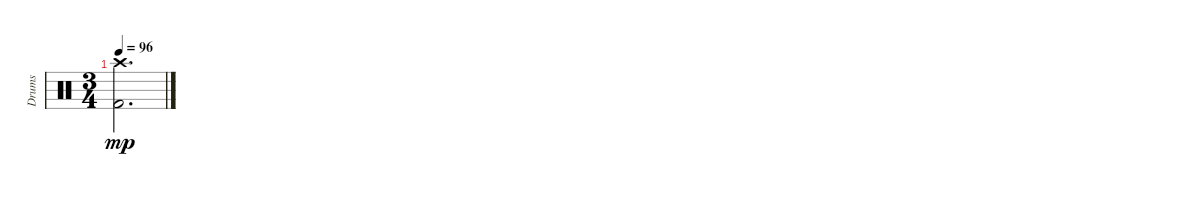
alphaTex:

\track ("Drums" "Drums") {instrument percussion}
\staff {score}
\articulation defaults
\ts (3 4)
\tempo 96
\clef neutral
\ks c
("Kick (hit) 2" "Crash high (hit)").2{d dy mp}
